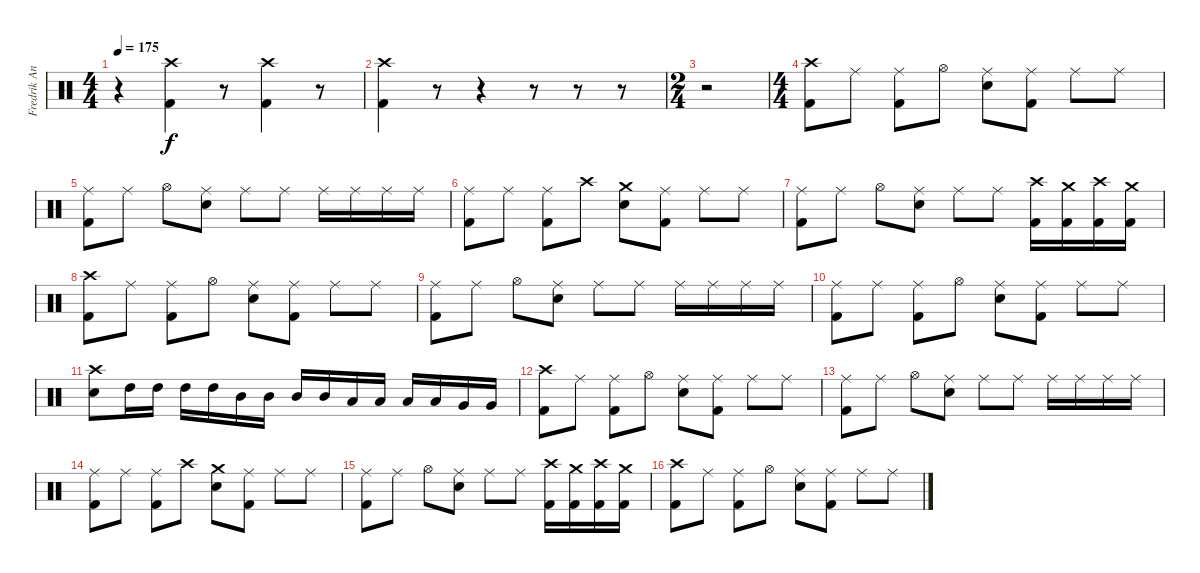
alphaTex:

\track ("Fredrik Andersson" "Fredrik An") {instrument percussion}
\staff {score}
\articulation defaults
\ts (4 4)
\tempo 175
\clef neutral
\ks c
r.4{dy f} ("Crash high (hit)" "Kick (hit) 2").4 r.8 ("Crash high (hit)" "Kick (hit) 2").4 r.8 |
("Crash high (hit)" "Kick (hit) 2").4 r.8 r.4 r.8 r.8 r.8 |
\ts (2 4)
r.2 |
\ts (4 4)
("Crash high (hit)" "Kick (hit) 2").8 "Ride (middle)".8 ("Ride (middle)" "Kick (hit) 2").8 "Hi-Hat (open)".8 ("Ride (middle)" "Electric Snare (hit)").8 ("Ride (middle)" "Kick (hit) 2").8 "Ride (middle)".8 "Ride (middle)".8 |
("Ride (middle)" "Kick (hit) 2").8 "Ride (middle)".8 "Hi-Hat (open)".8 ("Ride (middle)" "Electric Snare (hit)").8 "Ride (middle)".8 "Ride (middle)".8 "Ride (middle)".16 "Ride (middle)".16 "Ride (middle)".16 "Ride (middle)".16 |
("Ride (middle)" "Kick (hit) 2").8 "Ride (middle)".8 ("Ride (middle)" "Kick (hit) 2").8 "Crash high (hit)".8 ("Crash medium (hit)" "Electric Snare (hit)").8 ("Ride (middle)" "Kick (hit) 2").8 "Ride (middle)".8 "Ride (middle)".8 |
("Ride (middle)" "Kick (hit) 2").8 "Ride (middle)".8 "Hi-Hat (open)".8 ("Ride (middle)" "Electric Snare (hit)").8 "Ride (middle)".8 "Ride (middle)".8 ("Crash high (hit)" "Kick (hit) 2").16 ("Crash medium (hit)" "Kick (hit) 2").16 ("Crash high (hit)" "Kick (hit) 2").16 ("Crash medium (hit)" "Kick (hit) 2").16 |
("Crash high (hit)" "Kick (hit) 2").8 "Ride (middle)".8 ("Ride (middle)" "Kick (hit) 2").8 "Hi-Hat (open)".8 ("Ride (middle)" "Electric Snare (hit)").8 ("Ride (middle)" "Kick (hit) 2").8 "Ride (middle)".8 "Ride (middle)".8 |
("Ride (middle)" "Kick (hit) 2").8 "Ride (middle)".8 "Hi-Hat (open)".8 ("Ride (middle)" "Electric Snare (hit)").8 "Ride (middle)".8 "Ride (middle)".8 "Ride (middle)".16 "Ride (middle)".16 "Ride (middle)".16 "Ride (middle)".16 |
("Ride (middle)" "Kick (hit) 2").8 "Ride (middle)".8 ("Ride (middle)" "Kick (hit) 2").8 "Hi-Hat (open)".8 ("Ride (middle)" "Electric Snare (hit)").8 ("Ride (middle)" "Kick (hit) 2").8 "Ride (middle)".8 "Ride (middle)".8 |
("Crash high (hit)" "Electric Snare (hit)").8 "High Tom (hit)".16 "High Tom (hit)".16 "High Tom (hit)".16 "High Tom (hit)".16 "Mid Tom (hit)".16 "Mid Tom (hit)".16 "Mid Tom (hit)".16 "Mid Tom (hit)".16 "Low Tom (hit)".16 "Low Tom (hit)".16 "Low Tom (hit)".16 "Low Tom (hit)".16 "Very Low Tom (hit)".16 "Very Low Tom (hit)".16 |
("Crash high (hit)" "Kick (hit) 2").8 "Ride (middle)".8 ("Ride (middle)" "Kick (hit) 2").8 "Hi-Hat (open)".8 ("Ride (middle)" "Electric Snare (hit)").8 ("Ride (middle)" "Kick (hit) 2").8 "Ride (middle)".8 "Ride (middle)".8 |
("Ride (middle)" "Kick (hit) 2").8 "Ride (middle)".8 "Hi-Hat (open)".8 ("Ride (middle)" "Electric Snare (hit)").8 "Ride (middle)".8 "Ride (middle)".8 "Ride (middle)".16 "Ride (middle)".16 "Ride (middle)".16 "Ride (middle)".16 |
("Ride (middle)" "Kick (hit) 2").8 "Ride (middle)".8 ("Ride (middle)" "Kick (hit) 2").8 "Crash high (hit)".8 ("Crash medium (hit)" "Electric Snare (hit)").8 ("Ride (middle)" "Kick (hit) 2").8 "Ride (middle)".8 "Ride (middle)".8 |
("Ride (middle)" "Kick (hit) 2").8 "Ride (middle)".8 "Hi-Hat (open)".8 ("Ride (middle)" "Electric Snare (hit)").8 "Ride (middle)".8 "Ride (middle)".8 ("Crash high (hit)" "Kick (hit) 2").16 ("Crash medium (hit)" "Kick (hit) 2").16 ("Crash high (hit)" "Kick (hit) 2").16 ("Crash medium (hit)" "Kick (hit) 2").16 |
("Crash high (hit)" "Kick (hit) 2").8 "Ride (middle)".8 ("Ride (middle)" "Kick (hit) 2").8 "Hi-Hat (open)".8 ("Ride (middle)" "Electric Snare (hit)").8 ("Ride (middle)" "Kick (hit) 2").8 "Ride (middle)".8 "Ride (middle)".8
